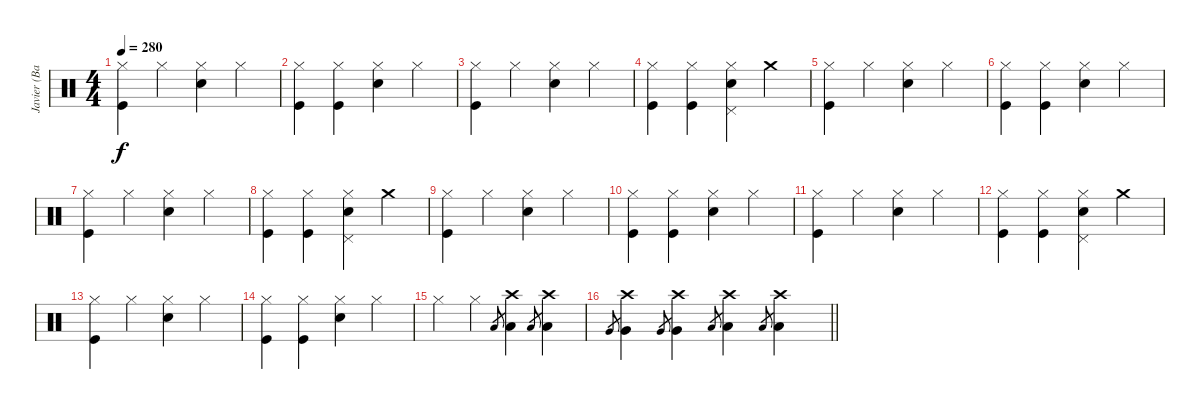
\track ("Javier (Bateria)" "Javier (Ba") {instrument percussion}
\staff {score}
\articulation defaults
\ts (4 4)
\tempo 280
\clef neutral
\ks c
("Hi-Hat (closed)" "Kick (hit)").4{dy f} "Hi-Hat (closed)".4 ("Hi-Hat (closed)" "Snare (hit) 2").4 "Hi-Hat (closed)".4 |
("Hi-Hat (closed)" "Kick (hit)").4 ("Hi-Hat (closed)" "Kick (hit)").4 ("Hi-Hat (closed)" "Snare (hit) 2").4 "Hi-Hat (closed)".4 |
("Hi-Hat (closed)" "Kick (hit)").4 "Hi-Hat (closed)".4 ("Hi-Hat (closed)" "Snare (hit) 2").4 "Hi-Hat (closed)".4 |
("Hi-Hat (closed)" "Kick (hit)").4 ("Hi-Hat (closed)" "Kick (hit)").4 ("Hi-Hat (closed)" "Pedal Hi-Hat (hit)" "Snare (hit) 2").4 "Crash medium (hit)".4 |
("Hi-Hat (closed)" "Kick (hit)").4 "Hi-Hat (closed)".4 ("Hi-Hat (closed)" "Snare (hit) 2").4 "Hi-Hat (closed)".4 |
("Hi-Hat (closed)" "Kick (hit)").4 ("Hi-Hat (closed)" "Kick (hit)").4 ("Hi-Hat (closed)" "Snare (hit) 2").4 "Hi-Hat (closed)".4 |
("Hi-Hat (closed)" "Kick (hit)").4 "Hi-Hat (closed)".4 ("Hi-Hat (closed)" "Snare (hit) 2").4 "Hi-Hat (closed)".4 |
("Hi-Hat (closed)" "Kick (hit)").4 ("Hi-Hat (closed)" "Kick (hit)").4 ("Hi-Hat (closed)" "Pedal Hi-Hat (hit)" "Snare (hit) 2").4 "Crash medium (hit)".4 |
("Hi-Hat (closed)" "Kick (hit)").4 "Hi-Hat (closed)".4 ("Hi-Hat (closed)" "Snare (hit) 2").4 "Hi-Hat (closed)".4 |
("Hi-Hat (closed)" "Kick (hit)").4 ("Hi-Hat (closed)" "Kick (hit)").4 ("Hi-Hat (closed)" "Snare (hit) 2").4 "Hi-Hat (closed)".4 |
("Hi-Hat (closed)" "Kick (hit)").4 "Hi-Hat (closed)".4 ("Hi-Hat (closed)" "Snare (hit) 2").4 "Hi-Hat (closed)".4 |
("Hi-Hat (closed)" "Kick (hit)").4 ("Hi-Hat (closed)" "Kick (hit)").4 ("Hi-Hat (closed)" "Pedal Hi-Hat (hit)" "Snare (hit) 2").4 "Crash medium (hit)".4 |
("Hi-Hat (closed)" "Kick (hit)").4 "Hi-Hat (closed)".4 ("Hi-Hat (closed)" "Snare (hit) 2").4 "Hi-Hat (closed)".4 |
("Hi-Hat (closed)" "Kick (hit)").4 ("Hi-Hat (closed)" "Kick (hit)").4 ("Hi-Hat (closed)" "Snare (hit) 2").4 "Hi-Hat (closed)".4 |
"Hi-Hat (closed)".4 "Hi-Hat (closed)".4 "Low Tom (hit)".8{gr} ("Crash high (hit)" "Low Tom (hit)").4 "Low Tom (hit)".8{gr} ("Crash high (hit)" "Low Tom (hit)").4 |
\barLineRight lightlight "Very Low Tom (hit)".8{gr}
("Crash high (hit)" "Very Low Tom (hit)").4 "Very Low Tom (hit)".8{gr} ("Crash high (hit)" "Very Low Tom (hit)").4 "Low Floor Tom (hit)".8{gr} ("Crash high (hit)" "Low Floor Tom (hit)").4 "Low Floor Tom (hit)".8{gr} ("Crash high (hit)" "Low Floor Tom (hit)").4
